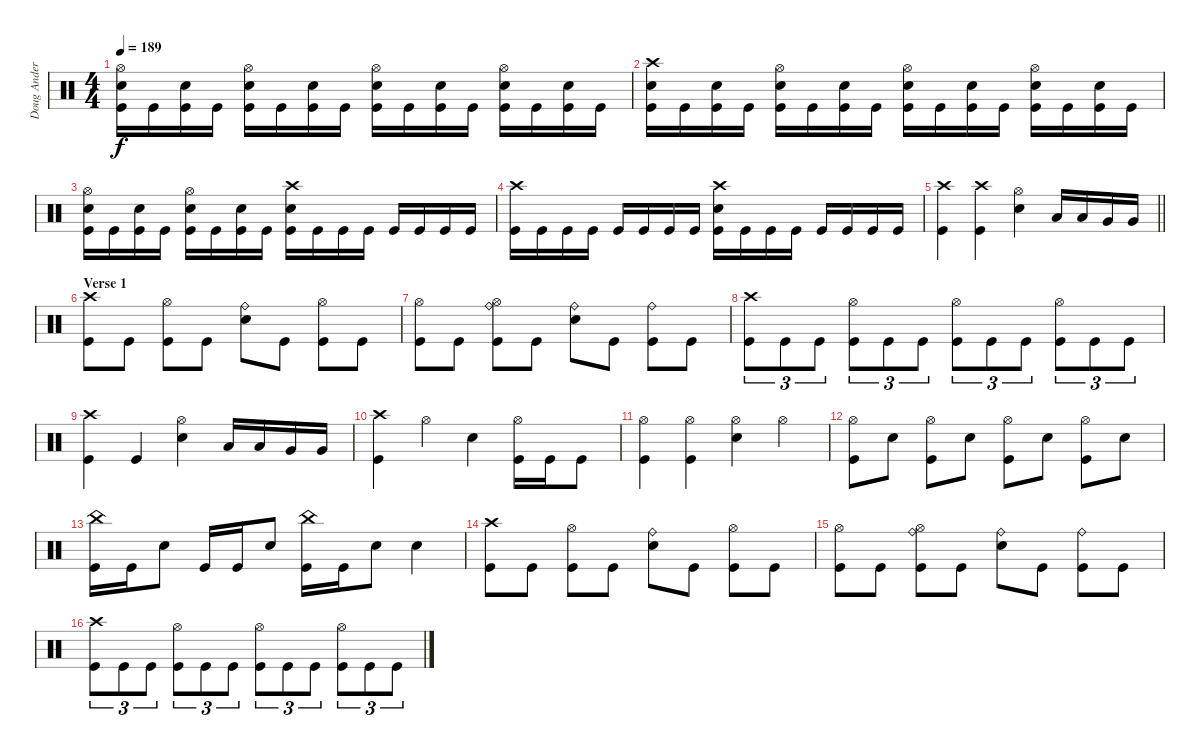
\track ("Doug Anderson" "Doug Ander") {instrument percussion}
\staff {score}
\articulation defaults
\ts (4 4)
\tempo 189
\clef neutral
\ks c
("Kick (hit)" "Snare (hit) 2" "Hi-Hat (open)").16{dy f} "Kick (hit)".16 ("Kick (hit)" "Snare (hit) 2").16 "Kick (hit)".16 ("Kick (hit)" "Snare (hit) 2" "Hi-Hat (open)").16 "Kick (hit)".16 ("Kick (hit)" "Snare (hit) 2").16 "Kick (hit)".16 ("Kick (hit)" "Snare (hit) 2" "Hi-Hat (open)").16 "Kick (hit)".16 ("Kick (hit)" "Snare (hit) 2").16 "Kick (hit)".16 ("Kick (hit)" "Snare (hit) 2" "Hi-Hat (open)").16 "Kick (hit)".16 ("Kick (hit)" "Snare (hit) 2").16 "Kick (hit)".16 |
("Kick (hit)" "Snare (hit) 2" "Crash high (hit)").16 "Kick (hit)".16 ("Kick (hit)" "Snare (hit) 2").16 "Kick (hit)".16 ("Kick (hit)" "Snare (hit) 2" "Hi-Hat (open)").16 "Kick (hit)".16 ("Kick (hit)" "Snare (hit) 2").16 "Kick (hit)".16 ("Kick (hit)" "Snare (hit) 2" "Hi-Hat (open)").16 "Kick (hit)".16 ("Kick (hit)" "Snare (hit) 2").16 "Kick (hit)".16 ("Kick (hit)" "Snare (hit) 2" "Hi-Hat (open)").16 "Kick (hit)".16 ("Kick (hit)" "Snare (hit) 2").16 "Kick (hit)".16 |
("Kick (hit)" "Snare (hit) 2" "Hi-Hat (open)").16 "Kick (hit)".16 ("Kick (hit)" "Snare (hit) 2").16 "Kick (hit)".16 ("Kick (hit)" "Snare (hit) 2" "Hi-Hat (open)").16 "Kick (hit)".16 ("Kick (hit)" "Snare (hit) 2").16 "Kick (hit)".16 ("Snare (hit) 2" "Kick (hit)" "Crash high (hit)").16 "Kick (hit)".16 "Kick (hit)".16 "Kick (hit)".16 "Kick (hit)".16 "Kick (hit)".16 "Kick (hit)".16 "Kick (hit)".16 |
("Kick (hit)" "Crash high (hit)").16 "Kick (hit)".16 "Kick (hit)".16 "Kick (hit)".16 "Kick (hit)".16 "Kick (hit)".16 "Kick (hit)".16 "Kick (hit)".16 ("Snare (hit) 2" "Kick (hit)" "Crash high (hit)").16 "Kick (hit)".16 "Kick (hit)".16 "Kick (hit)".16 "Kick (hit)".16 "Kick (hit)".16 "Kick (hit)".16 "Kick (hit)".16 |
\barLineRight lightlight
("Crash high (hit)" "Kick (hit)").4 ("Crash high (hit)" "Kick (hit)").4 ("Snare (hit) 2" "Hi-Hat (open)").4 "Low Tom (hit)".16 "Low Tom (hit)".16 "Very Low Tom (hit)".16 "Very Low Tom (hit)".16 |
\section ("" "Verse 1")
("Kick (hit)" "Crash high (hit)").8 "Kick (hit)".8 ("Kick (hit)" "Hi-Hat (open)").8 "Kick (hit)".8 ("Ride (bell)" "Snare (hit) 2").8 "Kick (hit)".8 ("Kick (hit)" "Hi-Hat (open)").8 "Kick (hit)".8 |
("Kick (hit)" "Hi-Hat (open)").8 "Kick (hit)".8 ("Kick (hit)" "Hi-Hat (open)" "Ride (bell)").8 "Kick (hit)".8 ("Ride (bell)" "Snare (hit) 2").8 "Kick (hit)".8 ("Kick (hit)" "Ride (bell)").8 "Kick (hit)".8 |
("Kick (hit)" "Crash high (hit)").8{tu (3 2)} "Kick (hit)".8{tu (3 2)} "Kick (hit)".8{tu (3 2)} ("Kick (hit)" "Hi-Hat (open)").8{tu (3 2)} "Kick (hit)".8{tu (3 2)} "Kick (hit)".8{tu (3 2)} ("Kick (hit)" "Hi-Hat (open)").8{tu (3 2)} "Kick (hit)".8{tu (3 2)} "Kick (hit)".8{tu (3 2)} ("Kick (hit)" "Hi-Hat (open)").8{tu (3 2)} "Kick (hit)".8{tu (3 2)} "Kick (hit)".8{tu (3 2)} |
("Crash high (hit)" "Kick (hit)").4 "Kick (hit)".4 ("Snare (hit) 2" "Hi-Hat (open)").4 "Low Tom (hit)".16 "Low Tom (hit)".16 "Very Low Tom (hit)".16 "Very Low Tom (hit)".16 |
("Kick (hit)" "Crash high (hit)").4 "Hi-Hat (open)".4 "Snare (hit) 2".4 ("Hi-Hat (open)" "Kick (hit)").16 "Kick (hit)".16 "Kick (hit)".8 |
("Kick (hit)" "Hi-Hat (open)").4 ("Kick (hit)" "Hi-Hat (open)").4 ("Hi-Hat (open)" "Snare (hit) 2").4 "Hi-Hat (open)".4 |
("Kick (hit)" "Hi-Hat (open)").8 "Snare (hit) 2".8 ("Kick (hit)" "Hi-Hat (open)").8 "Snare (hit) 2".8 ("Kick (hit)" "Hi-Hat (open)").8 "Snare (hit) 2".8 ("Kick (hit)" "Hi-Hat (open)").8 "Snare (hit) 2".8 |
("Kick (hit)" "China (hit)").16 "Kick (hit)".16 "Snare (hit) 2".8 "Kick (hit)".16 "Kick (hit)".16 "Snare (hit) 2".8 ("Kick (hit)" "China (hit)").16 "Kick (hit)".16 "Snare (hit) 2".8 "Snare (hit) 2".4 |
("Kick (hit)" "Crash high (hit)").8 "Kick (hit)".8 ("Kick (hit)" "Hi-Hat (open)").8 "Kick (hit)".8 ("Ride (bell)" "Snare (hit) 2").8 "Kick (hit)".8 ("Kick (hit)" "Hi-Hat (open)").8 "Kick (hit)".8 |
("Kick (hit)" "Hi-Hat (open)").8 "Kick (hit)".8 ("Kick (hit)" "Hi-Hat (open)" "Ride (bell)").8 "Kick (hit)".8 ("Ride (bell)" "Snare (hit) 2").8 "Kick (hit)".8 ("Kick (hit)" "Ride (bell)").8 "Kick (hit)".8 |
("Kick (hit)" "Crash high (hit)").8{tu (3 2)} "Kick (hit)".8{tu (3 2)} "Kick (hit)".8{tu (3 2)} ("Kick (hit)" "Hi-Hat (open)").8{tu (3 2)} "Kick (hit)".8{tu (3 2)} "Kick (hit)".8{tu (3 2)} ("Kick (hit)" "Hi-Hat (open)").8{tu (3 2)} "Kick (hit)".8{tu (3 2)} "Kick (hit)".8{tu (3 2)} ("Kick (hit)" "Hi-Hat (open)").8{tu (3 2)} "Kick (hit)".8{tu (3 2)} "Kick (hit)".8{tu (3 2)}
